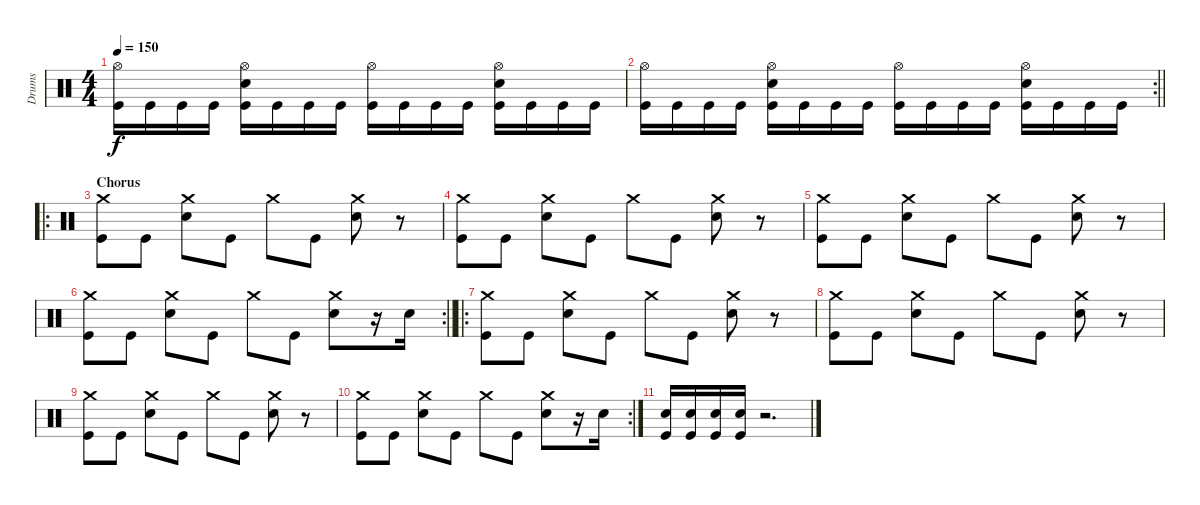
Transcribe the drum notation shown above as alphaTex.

\track ("Drums" "Drums") {instrument percussion}
\staff {score}
\articulation defaults
\ts (4 4)
\tempo 150
\clef neutral
\ks c
("Hi-Hat (open)" "Kick (hit)").16{dy f} "Kick (hit)".16 "Kick (hit)".16 "Kick (hit)".16 ("Hi-Hat (open)" "Snare (hit) 2" "Kick (hit)").16 "Kick (hit)".16 "Kick (hit)".16 "Kick (hit)".16 ("Hi-Hat (open)" "Kick (hit)").16 "Kick (hit)".16 "Kick (hit)".16 "Kick (hit)".16 ("Hi-Hat (open)" "Snare (hit) 2" "Kick (hit)").16 "Kick (hit)".16 "Kick (hit)".16 "Kick (hit)".16 |
\rc 2
\barLineRight lightlight
("Hi-Hat (open)" "Kick (hit)").16 "Kick (hit)".16 "Kick (hit)".16 "Kick (hit)".16 ("Hi-Hat (open)" "Snare (hit) 2" "Kick (hit)").16 "Kick (hit)".16 "Kick (hit)".16 "Kick (hit)".16 ("Hi-Hat (open)" "Kick (hit)").16 "Kick (hit)".16 "Kick (hit)".16 "Kick (hit)".16 ("Hi-Hat (open)" "Snare (hit) 2" "Kick (hit)").16 "Kick (hit)".16 "Kick (hit)".16 "Kick (hit)".16 |
\ro
\section ("" "Chorus")
("Crash medium (hit)" "Kick (hit)").8 "Kick (hit)".8 ("Crash medium (hit)" "Snare (hit) 2").8 "Kick (hit)".8 "Crash medium (hit)".8 "Kick (hit)".8 ("Crash medium (hit)" "Snare (hit) 2").8 r.8 |
("Crash medium (hit)" "Kick (hit)").8 "Kick (hit)".8 ("Crash medium (hit)" "Snare (hit) 2").8 "Kick (hit)".8 "Crash medium (hit)".8 "Kick (hit)".8 ("Crash medium (hit)" "Snare (hit) 2").8 r.8 |
("Crash medium (hit)" "Kick (hit)").8 "Kick (hit)".8 ("Crash medium (hit)" "Snare (hit) 2").8 "Kick (hit)".8 "Crash medium (hit)".8 "Kick (hit)".8 ("Crash medium (hit)" "Snare (hit) 2").8 r.8 |
\rc 2
\barLineRight lightlight
("Crash medium (hit)" "Kick (hit)").8 "Kick (hit)".8 ("Crash medium (hit)" "Snare (hit) 2").8 "Kick (hit)".8 "Crash medium (hit)".8 "Kick (hit)".8 ("Crash medium (hit)" "Snare (hit) 2").8 r.16 "Snare (hit) 2".16 |
\ro
("Crash medium (hit)" "Kick (hit)").8 "Kick (hit)".8 ("Crash medium (hit)" "Snare (hit) 2").8 "Kick (hit)".8 "Crash medium (hit)".8 "Kick (hit)".8 ("Crash medium (hit)" "Snare (hit) 2").8 r.8 |
("Crash medium (hit)" "Kick (hit)").8 "Kick (hit)".8 ("Crash medium (hit)" "Snare (hit) 2").8 "Kick (hit)".8 "Crash medium (hit)".8 "Kick (hit)".8 ("Crash medium (hit)" "Snare (hit) 2").8 r.8 |
("Crash medium (hit)" "Kick (hit)").8 "Kick (hit)".8 ("Crash medium (hit)" "Snare (hit) 2").8 "Kick (hit)".8 "Crash medium (hit)".8 "Kick (hit)".8 ("Crash medium (hit)" "Snare (hit) 2").8 r.8 |
\rc 2
("Crash medium (hit)" "Kick (hit)").8 "Kick (hit)".8 ("Crash medium (hit)" "Snare (hit) 2").8 "Kick (hit)".8 "Crash medium (hit)".8 "Kick (hit)".8 ("Crash medium (hit)" "Snare (hit) 2").8 r.16 "Snare (hit) 2".16 |
("Snare (hit) 2" "Kick (hit)").16 ("Snare (hit) 2" "Kick (hit)").16 ("Snare (hit) 2" "Kick (hit)").16 ("Snare (hit) 2" "Kick (hit)").16 r.2{d}
